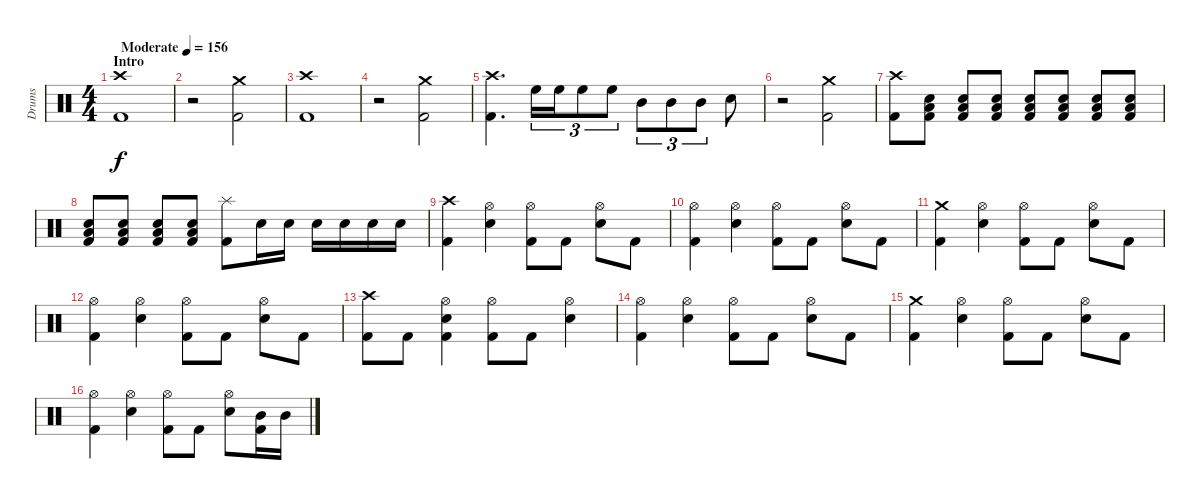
\track ("Drums" "Drums") {instrument percussion}
\staff {score}
\articulation defaults
\ts (4 4)
\section ("" "Intro")
\tempo (156 "Moderate")
\clef neutral
\ks c
("Crash high (hit)" "Kick (hit) 2").1{dy f} |
r.2 ("Crash medium (hit)" "Kick (hit) 2").2 |
("Crash high (hit)" "Kick (hit) 2").1 |
r.2 ("Crash medium (hit)" "Kick (hit) 2").2 |
("Crash high (hit)" "Kick (hit) 2").4{d} "High Floor Tom (hit)".16{tu (3 2)} "High Floor Tom (hit)".16{tu (3 2)} "High Floor Tom (hit)".8{tu (3 2)} "High Floor Tom (hit)".8{tu (3 2)} "Mid Tom (hit)".8{tu (3 2)} "Mid Tom (hit)".8{tu (3 2)} "Mid Tom (hit)".8{tu (3 2)} "Snare (hit) 2".8 |
r.2 ("Crash medium (hit)" "Kick (hit) 2").2 |
("Crash high (hit)" "Kick (hit) 2").8 ("Snare (hit) 2" "Low Tom (hit)" "Kick (hit) 2").8 ("Snare (hit) 2" "Low Tom (hit)" "Kick (hit) 2").8 ("Snare (hit) 2" "Low Tom (hit)" "Kick (hit) 2").8 ("Snare (hit) 2" "Low Tom (hit)" "Kick (hit) 2").8 ("Snare (hit) 2" "Low Tom (hit)" "Kick (hit) 2").8 ("Snare (hit) 2" "Low Tom (hit)" "Kick (hit) 2").8 ("Snare (hit) 2" "Low Tom (hit)" "Kick (hit) 2").8 |
("Snare (hit) 2" "Low Tom (hit)" "Kick (hit) 2").8 ("Snare (hit) 2" "Low Tom (hit)" "Kick (hit) 2").8 ("Snare (hit) 2" "Low Tom (hit)" "Kick (hit) 2").8 ("Snare (hit) 2" "Low Tom (hit)" "Kick (hit) 2").8 ("Splash (hit)" "Kick (hit) 2").8 "Snare (hit) 2".16 "Snare (hit) 2".16 "Snare (hit) 2".16 "Snare (hit) 2".16 "Snare (hit) 2".16 "Snare (hit) 2".16 |
("Crash high (hit)" "Kick (hit) 2").4 ("Hi-Hat (open)" "Snare (hit) 2").4 ("Hi-Hat (open)" "Kick (hit) 2").8 "Kick (hit) 2".8 ("Hi-Hat (open)" "Snare (hit) 2").8 "Kick (hit) 2".8 |
("Hi-Hat (open)" "Kick (hit) 2").4 ("Hi-Hat (open)" "Snare (hit) 2").4 ("Hi-Hat (open)" "Kick (hit) 2").8 "Kick (hit) 2".8 ("Hi-Hat (open)" "Snare (hit) 2").8 "Kick (hit) 2".8 |
("Crash medium (hit)" "Kick (hit) 2").4 ("Hi-Hat (open)" "Snare (hit) 2").4 ("Hi-Hat (open)" "Kick (hit) 2").8 "Kick (hit) 2".8 ("Hi-Hat (open)" "Snare (hit) 2").8 "Kick (hit) 2".8 |
("Hi-Hat (open)" "Kick (hit) 2").4 ("Hi-Hat (open)" "Snare (hit) 2").4 ("Hi-Hat (open)" "Kick (hit) 2").8 "Kick (hit) 2".8 ("Hi-Hat (open)" "Snare (hit) 2").8 "Kick (hit) 2".8 |
("Crash high (hit)" "Kick (hit) 2").8 "Kick (hit) 2".8 ("Hi-Hat (open)" "Snare (hit) 2" "Kick (hit) 2").4 ("Hi-Hat (open)" "Kick (hit) 2").8 "Kick (hit) 2".8 ("Hi-Hat (open)" "Snare (hit) 2").4 |
("Hi-Hat (open)" "Kick (hit) 2").4 ("Hi-Hat (open)" "Snare (hit) 2").4 ("Hi-Hat (open)" "Kick (hit) 2").8 "Kick (hit) 2".8 ("Hi-Hat (open)" "Snare (hit) 2").8 "Kick (hit) 2".8 |
("Crash medium (hit)" "Kick (hit) 2").4 ("Hi-Hat (open)" "Snare (hit) 2").4 ("Hi-Hat (open)" "Kick (hit) 2").8 "Kick (hit) 2".8 ("Hi-Hat (open)" "Snare (hit) 2").8 "Kick (hit) 2".8 |
("Hi-Hat (open)" "Kick (hit) 2").4 ("Hi-Hat (open)" "Snare (hit) 2").4 ("Hi-Hat (open)" "Kick (hit) 2").8 "Kick (hit) 2".8 ("Hi-Hat (open)" "Snare (hit) 2").8 ("Mid Tom (hit)" "Kick (hit) 2").16 "Mid Tom (hit)".16
